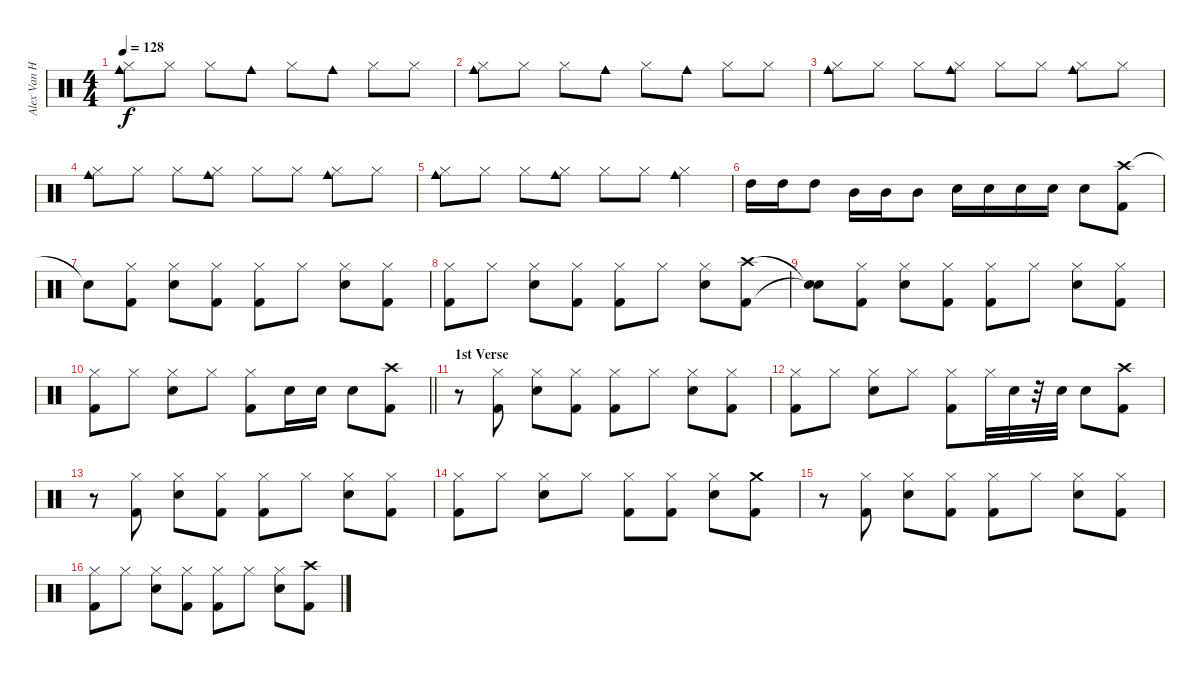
\track ("Alex Van Halen" "Alex Van H") {instrument percussion}
\staff {score}
\articulation defaults
\ts (4 4)
\tempo 128
\clef neutral
\ks c
("Cowbell medium (hit)" "Hi-Hat (closed)").8{dy f} "Hi-Hat (closed)".8 "Hi-Hat (closed)".8 "Cowbell medium (hit)".8 "Hi-Hat (closed)".8 "Cowbell medium (hit)".8 "Hi-Hat (closed)".8 "Hi-Hat (closed)".8 |
("Cowbell medium (hit)" "Hi-Hat (closed)").8 "Hi-Hat (closed)".8 "Hi-Hat (closed)".8 "Cowbell medium (hit)".8 "Hi-Hat (closed)".8 "Cowbell medium (hit)".8 "Hi-Hat (closed)".8 "Hi-Hat (closed)".8 |
("Cowbell medium (hit)" "Hi-Hat (closed)").8 "Hi-Hat (closed)".8 "Hi-Hat (closed)".8 ("Hi-Hat (closed)" "Cowbell medium (hit)").8 "Hi-Hat (closed)".8 "Hi-Hat (closed)".8 ("Cowbell medium (hit)" "Hi-Hat (closed)").8 "Hi-Hat (closed)".8 |
("Cowbell medium (hit)" "Hi-Hat (closed)").8 "Hi-Hat (closed)".8 "Hi-Hat (closed)".8 ("Cowbell medium (hit)" "Hi-Hat (closed)").8 "Hi-Hat (closed)".8 "Hi-Hat (closed)".8 ("Cowbell medium (hit)" "Hi-Hat (closed)").8 "Hi-Hat (closed)".8 |
("Cowbell medium (hit)" "Hi-Hat (closed)").8 "Hi-Hat (closed)".8 "Hi-Hat (closed)".8 ("Cowbell medium (hit)" "Hi-Hat (closed)").8 "Hi-Hat (closed)".8 "Hi-Hat (closed)".8 ("Hi-Hat (closed)" "Cowbell medium (hit)").4 |
"High Tom (hit)".16 "High Tom (hit)".16 "High Tom (hit)".8 "Mid Tom (hit)".16 "Mid Tom (hit)".16 "Mid Tom (hit)".8 "Snare (hit) 2".16 "Snare (hit) 2".16 "Snare (hit) 2".16 "Snare (hit) 2".16 "Snare (hit) 2".8 ("Crash high (hit)" "Kick (hit) 2").8 |
"Snare (hit)"{t}.8 ("Kick (hit) 2" "Hi-Hat (closed)").8 ("Snare (hit) 2" "Hi-Hat (closed)").8 ("Kick (hit) 2" "Hi-Hat (closed)").8 ("Kick (hit) 2" "Hi-Hat (closed)").8 "Hi-Hat (closed)".8 ("Snare (hit) 2" "Hi-Hat (closed)").8 ("Kick (hit) 2" "Hi-Hat (closed)").8 |
("Kick (hit) 2" "Hi-Hat (closed)").8 "Hi-Hat (closed)".8 ("Snare (hit) 2" "Hi-Hat (closed)").8 ("Kick (hit) 2" "Hi-Hat (closed)").8 ("Kick (hit) 2" "Hi-Hat (closed)").8 "Hi-Hat (closed)".8 ("Snare (hit) 2" "Hi-Hat (closed)").8 ("Crash high (hit)" "Kick (hit) 2").8 |
("Snare (hit)"{t} "Snare (hit)"{t}).8 ("Kick (hit) 2" "Hi-Hat (closed)").8 ("Snare (hit) 2" "Hi-Hat (closed)").8 ("Kick (hit) 2" "Hi-Hat (closed)").8 ("Kick (hit) 2" "Hi-Hat (closed)").8 "Hi-Hat (closed)".8 ("Snare (hit) 2" "Hi-Hat (closed)").8 ("Kick (hit) 2" "Hi-Hat (closed)").8 |
\barLineRight lightlight
("Kick (hit) 2" "Hi-Hat (closed)").8 "Hi-Hat (closed)".8 ("Snare (hit) 2" "Hi-Hat (closed)").8 "Hi-Hat (closed)".8 ("Kick (hit) 2" "Hi-Hat (closed)").8 "Snare (hit) 2".16 "Snare (hit) 2".16 "Snare (hit) 2".8 ("Crash high (hit)" "Kick (hit) 2").8 |
\section ("" "1st Verse")
r.8 ("Kick (hit) 2" "Hi-Hat (closed)").8 ("Snare (hit) 2" "Hi-Hat (closed)").8 ("Kick (hit) 2" "Hi-Hat (closed)").8 ("Kick (hit) 2" "Hi-Hat (closed)").8 "Hi-Hat (closed)".8 ("Snare (hit) 2" "Hi-Hat (closed)").8 ("Kick (hit) 2" "Hi-Hat (closed)").8 |
("Kick (hit) 2" "Hi-Hat (closed)").8 "Hi-Hat (closed)".8 ("Snare (hit) 2" "Hi-Hat (closed)").8 "Hi-Hat (closed)".8 ("Kick (hit) 2" "Hi-Hat (closed)").8 "Hi-Hat (closed)".32 "Snare (hit) 2".32 r.32 "Snare (hit) 2".32 "Snare (hit) 2".8 ("Crash high (hit)" "Kick (hit) 2").8 |
r.8 ("Kick (hit) 2" "Hi-Hat (closed)").8 ("Snare (hit) 2" "Hi-Hat (closed)").8 ("Kick (hit) 2" "Hi-Hat (closed)").8 ("Kick (hit) 2" "Hi-Hat (closed)").8 "Hi-Hat (closed)".8 ("Snare (hit) 2" "Hi-Hat (closed)").8 ("Kick (hit) 2" "Hi-Hat (closed)").8 |
("Kick (hit) 2" "Hi-Hat (closed)").8 "Hi-Hat (closed)".8 ("Snare (hit) 2" "Hi-Hat (closed)").8 "Hi-Hat (closed)".8 ("Kick (hit) 2" "Hi-Hat (closed)").8 ("Kick (hit) 2" "Hi-Hat (closed)").8 ("Snare (hit) 2" "Hi-Hat (closed)").8 ("Crash medium (hit)" "Kick (hit) 2").8 |
r.8 ("Kick (hit) 2" "Hi-Hat (closed)").8 ("Snare (hit) 2" "Hi-Hat (closed)").8 ("Kick (hit) 2" "Hi-Hat (closed)").8 ("Kick (hit) 2" "Hi-Hat (closed)").8 "Hi-Hat (closed)".8 ("Snare (hit) 2" "Hi-Hat (closed)").8 ("Kick (hit) 2" "Hi-Hat (closed)").8 |
("Kick (hit) 2" "Hi-Hat (closed)").8 "Hi-Hat (closed)".8 ("Snare (hit) 2" "Hi-Hat (closed)").8 ("Kick (hit) 2" "Hi-Hat (closed)").8 ("Kick (hit) 2" "Hi-Hat (closed)").8 "Hi-Hat (closed)".8 ("Snare (hit) 2" "Hi-Hat (closed)").8 ("Kick (hit) 2" "Crash high (hit)").8
